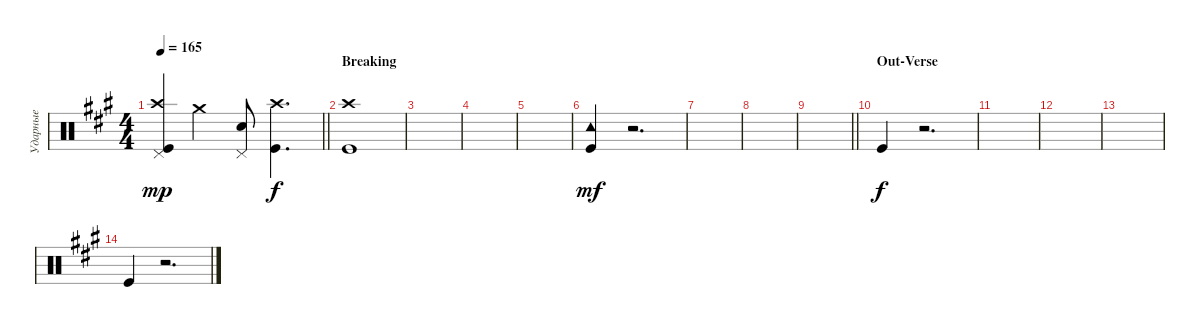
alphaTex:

\track ("Ударные" "Ударные") {instrument percussion}
\staff {score}
\articulation defaults
\ts (4 4)
\tempo 165
\clef neutral
\barLineRight lightlight
\ks f#minor
("Kick (hit)" "Crash high (hit)" "Pedal Hi-Hat (hit)").4{dy mp} "Crash medium (hit)".4 ("Snare (hit) 2" "Pedal Hi-Hat (hit)").8 ("Kick (hit)" "Crash high (hit)").4{d dy f} |
\section ("" "Breaking")
("Kick (hit)" "Crash high (hit)").1 |
|
|
|
("Kick (hit)" "Tambourine (hit)").4{dy mf} r.2{d} |
|
|
\barLineRight lightlight
|
\section ("" "Out-Verse")
"Kick (hit)".4{dy f} r.2{d} |
|
|
|
"Kick (hit)".4 r.2{d}
